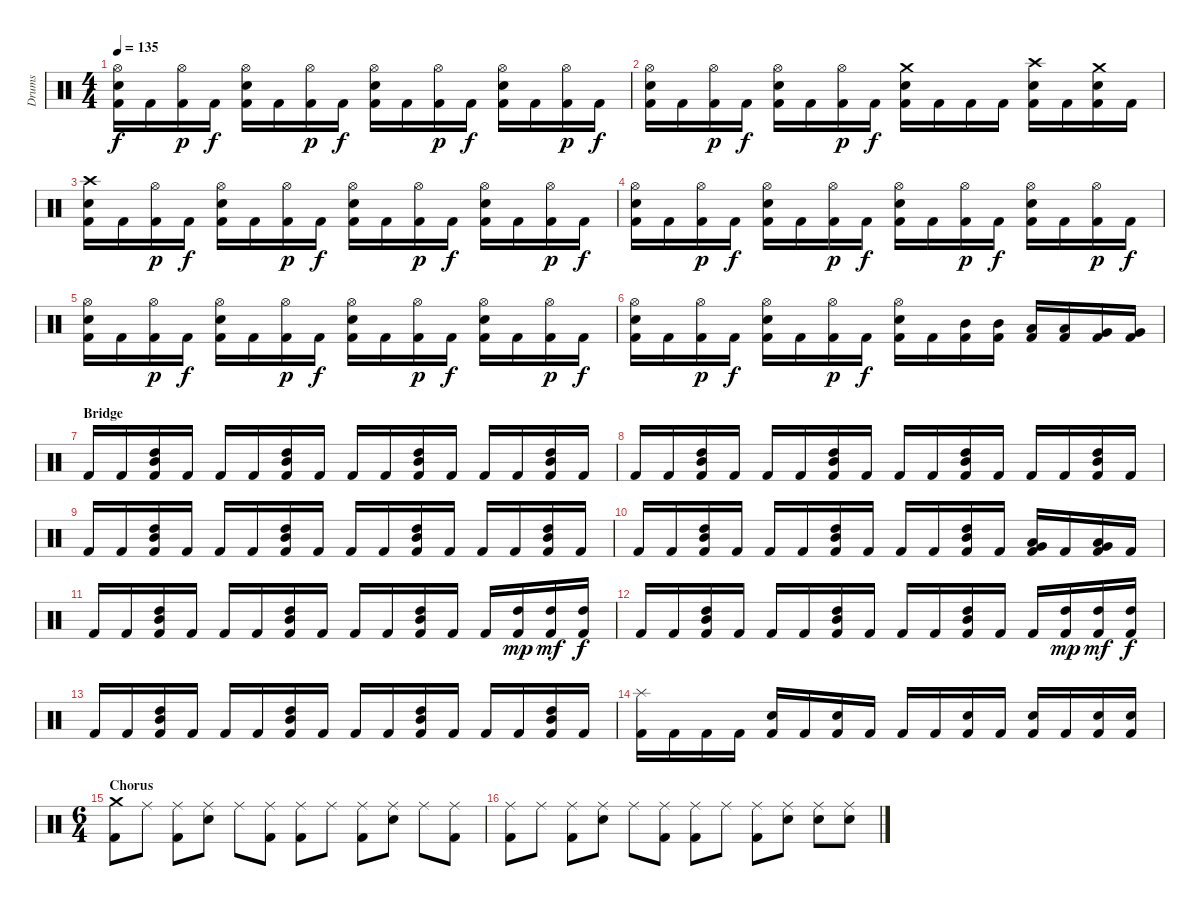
\track ("Drums" "Drums") {instrument percussion}
\staff {score}
\articulation defaults
\ts (4 4)
\tempo 135
\clef neutral
\ks c
("Hi-Hat (open)" "Snare (hit) 2" "Kick (hit) 2").16{dy f} "Kick (hit) 2".16 ("Hi-Hat (open)" "Kick (hit) 2").16{dy p} "Kick (hit) 2".16{dy f} ("Hi-Hat (open)" "Snare (hit) 2" "Kick (hit) 2").16 "Kick (hit) 2".16 ("Hi-Hat (open)" "Kick (hit) 2").16{dy p} "Kick (hit) 2".16{dy f} ("Hi-Hat (open)" "Snare (hit) 2" "Kick (hit) 2").16 "Kick (hit) 2".16 ("Hi-Hat (open)" "Kick (hit) 2").16{dy p} "Kick (hit) 2".16{dy f} ("Hi-Hat (open)" "Snare (hit) 2" "Kick (hit) 2").16 "Kick (hit) 2".16 ("Hi-Hat (open)" "Kick (hit) 2").16{dy p} "Kick (hit) 2".16{dy f} |
("Hi-Hat (open)" "Snare (hit) 2" "Kick (hit) 2").16 "Kick (hit) 2".16 ("Hi-Hat (open)" "Kick (hit) 2").16{dy p} "Kick (hit) 2".16{dy f} ("Hi-Hat (open)" "Snare (hit) 2" "Kick (hit) 2").16 "Kick (hit) 2".16 ("Hi-Hat (open)" "Kick (hit) 2").16{dy p} "Kick (hit) 2".16{dy f} ("Crash medium (hit)" "Snare (hit) 2" "Kick (hit) 2").16 "Kick (hit) 2".16 "Kick (hit) 2".16 "Kick (hit) 2".16 ("Crash high (hit)" "Snare (hit) 2" "Kick (hit) 2").16 "Kick (hit) 2".16 ("Crash medium (hit)" "Snare (hit) 2" "Kick (hit) 2").16 "Kick (hit) 2".16 |
("Crash high (hit)" "Snare (hit) 2" "Kick (hit) 2").16 "Kick (hit) 2".16 ("Hi-Hat (open)" "Kick (hit) 2").16{dy p} "Kick (hit) 2".16{dy f} ("Hi-Hat (open)" "Snare (hit) 2" "Kick (hit) 2").16 "Kick (hit) 2".16 ("Hi-Hat (open)" "Kick (hit) 2").16{dy p} "Kick (hit) 2".16{dy f} ("Hi-Hat (open)" "Snare (hit) 2" "Kick (hit) 2").16 "Kick (hit) 2".16 ("Hi-Hat (open)" "Kick (hit) 2").16{dy p} "Kick (hit) 2".16{dy f} ("Hi-Hat (open)" "Snare (hit) 2" "Kick (hit) 2").16 "Kick (hit) 2".16 ("Hi-Hat (open)" "Kick (hit) 2").16{dy p} "Kick (hit) 2".16{dy f} |
("Hi-Hat (open)" "Snare (hit) 2" "Kick (hit) 2").16 "Kick (hit) 2".16 ("Hi-Hat (open)" "Kick (hit) 2").16{dy p} "Kick (hit) 2".16{dy f} ("Hi-Hat (open)" "Snare (hit) 2" "Kick (hit) 2").16 "Kick (hit) 2".16 ("Hi-Hat (open)" "Kick (hit) 2").16{dy p} "Kick (hit) 2".16{dy f} ("Hi-Hat (open)" "Snare (hit) 2" "Kick (hit) 2").16 "Kick (hit) 2".16 ("Hi-Hat (open)" "Kick (hit) 2").16{dy p} "Kick (hit) 2".16{dy f} ("Hi-Hat (open)" "Snare (hit) 2" "Kick (hit) 2").16 "Kick (hit) 2".16 ("Hi-Hat (open)" "Kick (hit) 2").16{dy p} "Kick (hit) 2".16{dy f} |
("Hi-Hat (open)" "Snare (hit) 2" "Kick (hit) 2").16 "Kick (hit) 2".16 ("Hi-Hat (open)" "Kick (hit) 2").16{dy p} "Kick (hit) 2".16{dy f} ("Hi-Hat (open)" "Snare (hit) 2" "Kick (hit) 2").16 "Kick (hit) 2".16 ("Hi-Hat (open)" "Kick (hit) 2").16{dy p} "Kick (hit) 2".16{dy f} ("Hi-Hat (open)" "Snare (hit) 2" "Kick (hit) 2").16 "Kick (hit) 2".16 ("Hi-Hat (open)" "Kick (hit) 2").16{dy p} "Kick (hit) 2".16{dy f} ("Hi-Hat (open)" "Snare (hit) 2" "Kick (hit) 2").16 "Kick (hit) 2".16 ("Hi-Hat (open)" "Kick (hit) 2").16{dy p} "Kick (hit) 2".16{dy f} |
("Hi-Hat (open)" "Snare (hit) 2" "Kick (hit) 2").16 "Kick (hit) 2".16 ("Hi-Hat (open)" "Kick (hit) 2").16{dy p} "Kick (hit) 2".16{dy f} ("Hi-Hat (open)" "Snare (hit) 2" "Kick (hit) 2").16 "Kick (hit) 2".16 ("Hi-Hat (open)" "Kick (hit) 2").16{dy p} "Kick (hit) 2".16{dy f} ("Hi-Hat (open)" "Snare (hit) 2" "Kick (hit) 2").16 "Kick (hit) 2".16 ("Mid Tom (hit)" "Kick (hit) 2").16 ("Mid Tom (hit)" "Kick (hit) 2").16 ("Low Tom (hit)" "Kick (hit) 2").16 ("Low Tom (hit)" "Kick (hit) 2").16 ("Very Low Tom (hit)" "Kick (hit) 2").16 ("Very Low Tom (hit)" "Kick (hit) 2").16 |
\section ("" "Bridge")
"Kick (hit) 2".16 "Kick (hit) 2".16 ("High Tom (hit)" "Mid Tom (hit)" "Kick (hit) 2").16 "Kick (hit) 2".16 "Kick (hit) 2".16 "Kick (hit) 2".16 ("High Tom (hit)" "Mid Tom (hit)" "Kick (hit) 2").16 "Kick (hit) 2".16 "Kick (hit) 2".16 "Kick (hit) 2".16 ("High Tom (hit)" "Mid Tom (hit)" "Kick (hit) 2").16 "Kick (hit) 2".16 "Kick (hit) 2".16 "Kick (hit) 2".16 ("High Tom (hit)" "Mid Tom (hit)" "Kick (hit) 2").16 "Kick (hit) 2".16 |
"Kick (hit) 2".16 "Kick (hit) 2".16 ("High Tom (hit)" "Mid Tom (hit)" "Kick (hit) 2").16 "Kick (hit) 2".16 "Kick (hit) 2".16 "Kick (hit) 2".16 ("High Tom (hit)" "Mid Tom (hit)" "Kick (hit) 2").16 "Kick (hit) 2".16 "Kick (hit) 2".16 "Kick (hit) 2".16 ("High Tom (hit)" "Mid Tom (hit)" "Kick (hit) 2").16 "Kick (hit) 2".16 "Kick (hit) 2".16 "Kick (hit) 2".16 ("High Tom (hit)" "Mid Tom (hit)" "Kick (hit) 2").16 "Kick (hit) 2".16 |
"Kick (hit) 2".16 "Kick (hit) 2".16 ("High Tom (hit)" "Mid Tom (hit)" "Kick (hit) 2").16 "Kick (hit) 2".16 "Kick (hit) 2".16 "Kick (hit) 2".16 ("High Tom (hit)" "Mid Tom (hit)" "Kick (hit) 2").16 "Kick (hit) 2".16 "Kick (hit) 2".16 "Kick (hit) 2".16 ("High Tom (hit)" "Mid Tom (hit)" "Kick (hit) 2").16 "Kick (hit) 2".16 "Kick (hit) 2".16 "Kick (hit) 2".16 ("High Tom (hit)" "Mid Tom (hit)" "Kick (hit) 2").16 "Kick (hit) 2".16 |
"Kick (hit) 2".16 "Kick (hit) 2".16 ("High Tom (hit)" "Mid Tom (hit)" "Kick (hit) 2").16 "Kick (hit) 2".16 "Kick (hit) 2".16 "Kick (hit) 2".16 ("High Tom (hit)" "Mid Tom (hit)" "Kick (hit) 2").16 "Kick (hit) 2".16 "Kick (hit) 2".16 "Kick (hit) 2".16 ("High Tom (hit)" "Mid Tom (hit)" "Kick (hit) 2").16 "Kick (hit) 2".16 ("Low Tom (hit)" "Very Low Tom (hit)" "Kick (hit) 2").16 "Kick (hit) 2".16 ("Very Low Tom (hit)" "Low Floor Tom (hit)" "Kick (hit) 2").16 "Kick (hit) 2".16 |
"Kick (hit) 2".16 "Kick (hit) 2".16 ("High Tom (hit)" "Mid Tom (hit)" "Kick (hit) 2").16 "Kick (hit) 2".16 "Kick (hit) 2".16 "Kick (hit) 2".16 ("High Tom (hit)" "Mid Tom (hit)" "Kick (hit) 2").16 "Kick (hit) 2".16 "Kick (hit) 2".16 "Kick (hit) 2".16 ("High Tom (hit)" "Mid Tom (hit)" "Kick (hit) 2").16 "Kick (hit) 2".16 "Kick (hit) 2".16 ("High Tom (hit)" "Kick (hit) 2").16{dy mp} ("High Tom (hit)" "Kick (hit) 2").16{dy mf} ("High Tom (hit)" "Kick (hit) 2").16{dy f} |
"Kick (hit) 2".16 "Kick (hit) 2".16 ("High Tom (hit)" "Mid Tom (hit)" "Kick (hit) 2").16 "Kick (hit) 2".16 "Kick (hit) 2".16 "Kick (hit) 2".16 ("High Tom (hit)" "Mid Tom (hit)" "Kick (hit) 2").16 "Kick (hit) 2".16 "Kick (hit) 2".16 "Kick (hit) 2".16 ("High Tom (hit)" "Mid Tom (hit)" "Kick (hit) 2").16 "Kick (hit) 2".16 "Kick (hit) 2".16 ("High Tom (hit)" "Kick (hit) 2").16{dy mp} ("High Tom (hit)" "Kick (hit) 2").16{dy mf} ("High Tom (hit)" "Kick (hit) 2").16{dy f} |
"Kick (hit) 2".16 "Kick (hit) 2".16 ("High Tom (hit)" "Mid Tom (hit)" "Kick (hit) 2").16 "Kick (hit) 2".16 "Kick (hit) 2".16 "Kick (hit) 2".16 ("High Tom (hit)" "Mid Tom (hit)" "Kick (hit) 2").16 "Kick (hit) 2".16 "Kick (hit) 2".16 "Kick (hit) 2".16 ("High Tom (hit)" "Mid Tom (hit)" "Kick (hit) 2").16 "Kick (hit) 2".16 "Kick (hit) 2".16 "Kick (hit) 2".16 ("High Tom (hit)" "Mid Tom (hit)" "Kick (hit) 2").16 "Kick (hit) 2".16 |
("Splash (hit)" "Kick (hit) 2").16 "Kick (hit) 2".16 "Kick (hit) 2".16 "Kick (hit) 2".16 ("Snare (hit) 2" "Kick (hit) 2").16 "Kick (hit) 2".16 ("Snare (hit) 2" "Kick (hit) 2").16 "Kick (hit) 2".16 "Kick (hit) 2".16 "Kick (hit) 2".16 ("Snare (hit) 2" "Kick (hit) 2").16 "Kick (hit) 2".16 ("Snare (hit) 2" "Kick (hit) 2").16 "Kick (hit) 2".16 ("Snare (hit) 2" "Kick (hit) 2").16 ("Snare (hit) 2" "Kick (hit) 2").16 |
\ts (6 4)
\section ("" "Chorus")
("Crash medium (hit)" "Kick (hit) 2").8 "Ride (middle)".8 ("Ride (middle)" "Kick (hit) 2").8 ("Ride (middle)" "Snare (hit) 2").8 "Ride (middle)".8 ("Ride (middle)" "Kick (hit) 2").8 ("Ride (middle)" "Kick (hit) 2").8 "Ride (middle)".8 ("Ride (middle)" "Kick (hit) 2").8 ("Ride (middle)" "Snare (hit) 2").8 "Ride (middle)".8 ("Ride (middle)" "Kick (hit) 2").8 |
("Ride (middle)" "Kick (hit) 2").8 "Ride (middle)".8 ("Ride (middle)" "Kick (hit) 2").8 ("Ride (middle)" "Snare (hit) 2").8 "Ride (middle)".8 ("Ride (middle)" "Kick (hit) 2").8 ("Ride (middle)" "Kick (hit) 2").8 "Ride (middle)".8 ("Ride (middle)" "Kick (hit) 2").8 ("Ride (middle)" "Snare (hit) 2").8 ("Ride (middle)" "Snare (hit) 2").8 ("Ride (middle)" "Snare (hit) 2").8
